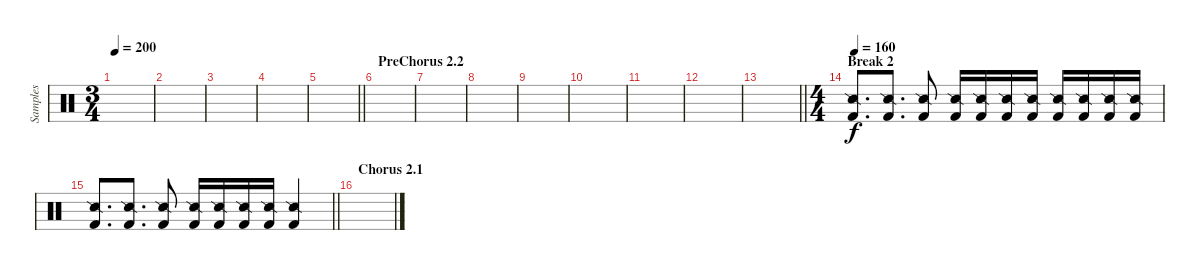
\track ("Samples" "Samples") {instrument percussion}
\staff {score}
\articulation defaults
\ts (3 4)
\tempo 200
\clef neutral
\ks c
|
|
|
|
\barLineRight lightlight
|
\section ("" "PreChorus 2.2")
|
|
|
|
|
|
|
\barLineRight lightlight
|
\ts (4 4)
\section ("" "Break 2")
\tempo 160
("Snare (side stick) 2" "Kick (hit) 2").8{d} ("Snare (side stick) 2" "Kick (hit) 2").8{d} ("Snare (side stick) 2" "Kick (hit) 2").8 ("Snare (side stick) 2" "Kick (hit) 2").16 ("Snare (side stick) 2" "Kick (hit) 2").16 ("Snare (side stick) 2" "Kick (hit) 2").16 ("Snare (side stick) 2" "Kick (hit) 2").16 ("Snare (side stick) 2" "Kick (hit) 2").16 ("Snare (side stick) 2" "Kick (hit) 2").16 ("Snare (side stick) 2" "Kick (hit) 2").16 ("Snare (side stick) 2" "Kick (hit) 2").16 |
\barLineRight lightlight
("Snare (side stick) 2" "Kick (hit) 2").8{d} ("Snare (side stick) 2" "Kick (hit) 2").8{d} ("Snare (side stick) 2" "Kick (hit) 2").8 ("Snare (side stick) 2" "Kick (hit) 2").16 ("Snare (side stick) 2" "Kick (hit) 2").16 ("Snare (side stick) 2" "Kick (hit) 2").16 ("Snare (side stick) 2" "Kick (hit) 2").16 ("Snare (side stick) 2" "Kick (hit) 2").4 |
\section ("" "Chorus 2.1")
